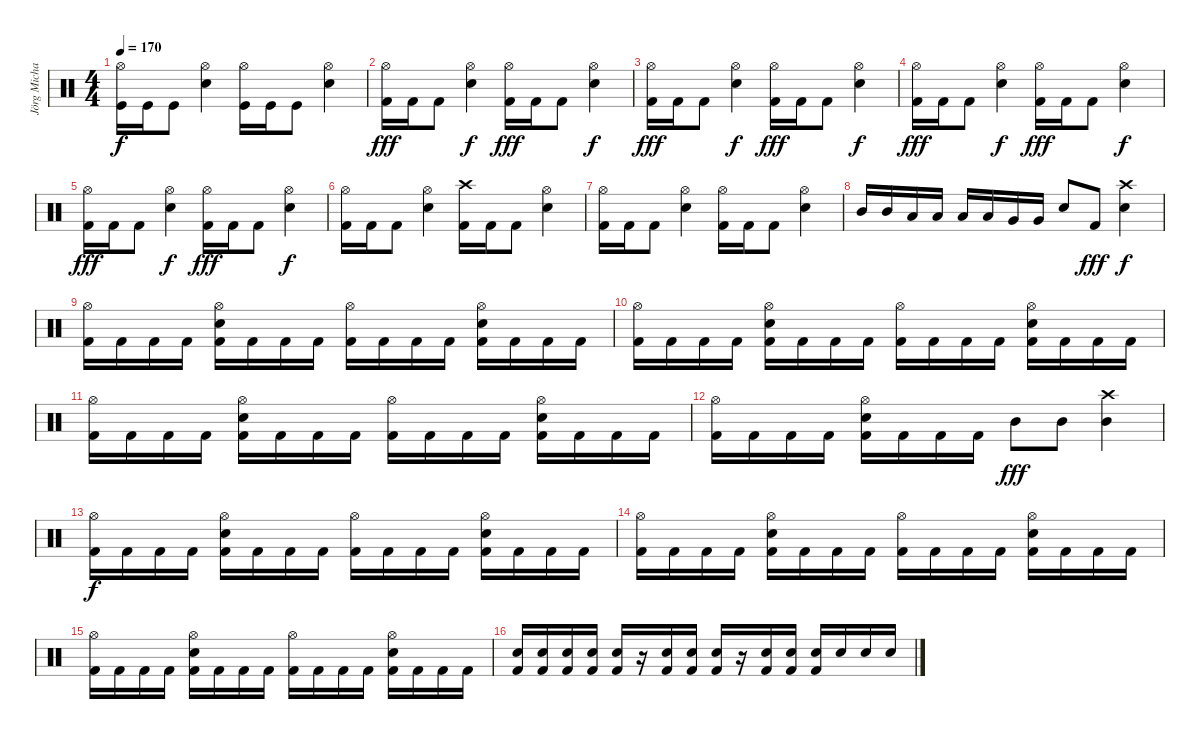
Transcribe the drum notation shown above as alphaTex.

\track ("Jörg Michael" "Jörg Micha") {instrument percussion}
\staff {score}
\articulation defaults
\ts (4 4)
\tempo 170
\clef neutral
\ks c
("Hi-Hat (open)" "Kick (hit)").16{dy f} "Kick (hit)".16 "Kick (hit)".8 ("Hi-Hat (open)" "Electric Snare (hit)").4 ("Hi-Hat (open)" "Kick (hit)").16 "Kick (hit)".16 "Kick (hit)".8 ("Hi-Hat (open)" "Electric Snare (hit)").4 |
("Hi-Hat (open)" "Kick (hit) 2").16{dy fff} "Kick (hit) 2".16 "Kick (hit) 2".8 ("Hi-Hat (open)" "Snare (hit) 2").4{dy f} ("Hi-Hat (open)" "Kick (hit) 2").16{dy fff} "Kick (hit) 2".16 "Kick (hit) 2".8 ("Hi-Hat (open)" "Snare (hit) 2").4{dy f} |
("Hi-Hat (open)" "Kick (hit) 2").16{dy fff} "Kick (hit) 2".16 "Kick (hit) 2".8 ("Hi-Hat (open)" "Snare (hit) 2").4{dy f} ("Hi-Hat (open)" "Kick (hit) 2").16{dy fff} "Kick (hit) 2".16 "Kick (hit) 2".8 ("Hi-Hat (open)" "Snare (hit) 2").4{dy f} |
("Hi-Hat (open)" "Kick (hit) 2").16{dy fff} "Kick (hit) 2".16 "Kick (hit) 2".8 ("Hi-Hat (open)" "Snare (hit) 2").4{dy f} ("Hi-Hat (open)" "Kick (hit) 2").16{dy fff} "Kick (hit) 2".16 "Kick (hit) 2".8 ("Hi-Hat (open)" "Snare (hit) 2").4{dy f} |
("Hi-Hat (open)" "Kick (hit) 2").16{dy fff} "Kick (hit) 2".16 "Kick (hit) 2".8 ("Hi-Hat (open)" "Snare (hit) 2").4{dy f} ("Hi-Hat (open)" "Kick (hit) 2").16{dy fff} "Kick (hit) 2".16 "Kick (hit) 2".8 ("Hi-Hat (open)" "Snare (hit) 2").4{dy f} |
("Hi-Hat (open)" "Kick (hit) 2").16 "Kick (hit) 2".16 "Kick (hit) 2".8 ("Hi-Hat (open)" "Snare (hit) 2").4 ("Crash high (hit)" "Kick (hit) 2").16 "Kick (hit) 2".16 "Kick (hit) 2".8 ("Hi-Hat (open)" "Snare (hit) 2").4 |
("Hi-Hat (open)" "Kick (hit) 2").16 "Kick (hit) 2".16 "Kick (hit) 2".8 ("Hi-Hat (open)" "Snare (hit) 2").4 ("Hi-Hat (open)" "Kick (hit) 2").16 "Kick (hit) 2".16 "Kick (hit) 2".8 ("Hi-Hat (open)" "Snare (hit) 2").4 |
"Mid Tom (hit)".16 "Mid Tom (hit)".16 "Low Tom (hit)".16 "Low Tom (hit)".16 "Low Floor Tom (hit)".16 "Low Floor Tom (hit)".16 "Very Low Tom (hit)".16 "Very Low Tom (hit)".16 "Snare (hit) 2".8 "Kick (hit) 2".8{dy fff} ("Crash high (hit)" "Snare (hit) 2").4{dy f} |
("Hi-Hat (open)" "Kick (hit) 2").16 "Kick (hit) 2".16 "Kick (hit) 2".16 "Kick (hit) 2".16 ("Hi-Hat (open)" "Snare (hit) 2" "Kick (hit) 2").16 "Kick (hit) 2".16 "Kick (hit) 2".16 "Kick (hit) 2".16 ("Hi-Hat (open)" "Kick (hit) 2").16 "Kick (hit) 2".16 "Kick (hit) 2".16 "Kick (hit) 2".16 ("Hi-Hat (open)" "Snare (hit) 2" "Kick (hit) 2").16 "Kick (hit) 2".16 "Kick (hit) 2".16 "Kick (hit) 2".16 |
("Hi-Hat (open)" "Kick (hit) 2").16 "Kick (hit) 2".16 "Kick (hit) 2".16 "Kick (hit) 2".16 ("Hi-Hat (open)" "Snare (hit) 2" "Kick (hit) 2").16 "Kick (hit) 2".16 "Kick (hit) 2".16 "Kick (hit) 2".16 ("Hi-Hat (open)" "Kick (hit) 2").16 "Kick (hit) 2".16 "Kick (hit) 2".16 "Kick (hit) 2".16 ("Hi-Hat (open)" "Snare (hit) 2" "Kick (hit) 2").16 "Kick (hit) 2".16 "Kick (hit) 2".16 "Kick (hit) 2".16 |
("Hi-Hat (open)" "Kick (hit) 2").16 "Kick (hit) 2".16 "Kick (hit) 2".16 "Kick (hit) 2".16 ("Hi-Hat (open)" "Snare (hit) 2" "Kick (hit) 2").16 "Kick (hit) 2".16 "Kick (hit) 2".16 "Kick (hit) 2".16 ("Hi-Hat (open)" "Kick (hit) 2").16 "Kick (hit) 2".16 "Kick (hit) 2".16 "Kick (hit) 2".16 ("Hi-Hat (open)" "Snare (hit) 2" "Kick (hit) 2").16 "Kick (hit) 2".16 "Kick (hit) 2".16 "Kick (hit) 2".16 |
("Hi-Hat (open)" "Kick (hit) 2").16 "Kick (hit) 2".16 "Kick (hit) 2".16 "Kick (hit) 2".16 ("Hi-Hat (open)" "Snare (hit) 2" "Kick (hit) 2").16 "Kick (hit) 2".16 "Kick (hit) 2".16 "Kick (hit) 2".16 "Mid Tom (hit)".8{dy fff} "Mid Tom (hit)".8 ("Crash high (hit)" "Mid Tom (hit)").4 |
("Hi-Hat (open)" "Kick (hit) 2").16{dy f} "Kick (hit) 2".16 "Kick (hit) 2".16 "Kick (hit) 2".16 ("Hi-Hat (open)" "Snare (hit) 2" "Kick (hit) 2").16 "Kick (hit) 2".16 "Kick (hit) 2".16 "Kick (hit) 2".16 ("Hi-Hat (open)" "Kick (hit) 2").16 "Kick (hit) 2".16 "Kick (hit) 2".16 "Kick (hit) 2".16 ("Hi-Hat (open)" "Snare (hit) 2" "Kick (hit) 2").16 "Kick (hit) 2".16 "Kick (hit) 2".16 "Kick (hit) 2".16 |
("Hi-Hat (open)" "Kick (hit) 2").16 "Kick (hit) 2".16 "Kick (hit) 2".16 "Kick (hit) 2".16 ("Hi-Hat (open)" "Snare (hit) 2" "Kick (hit) 2").16 "Kick (hit) 2".16 "Kick (hit) 2".16 "Kick (hit) 2".16 ("Hi-Hat (open)" "Kick (hit) 2").16 "Kick (hit) 2".16 "Kick (hit) 2".16 "Kick (hit) 2".16 ("Hi-Hat (open)" "Snare (hit) 2" "Kick (hit) 2").16 "Kick (hit) 2".16 "Kick (hit) 2".16 "Kick (hit) 2".16 |
("Hi-Hat (open)" "Kick (hit) 2").16 "Kick (hit) 2".16 "Kick (hit) 2".16 "Kick (hit) 2".16 ("Hi-Hat (open)" "Snare (hit) 2" "Kick (hit) 2").16 "Kick (hit) 2".16 "Kick (hit) 2".16 "Kick (hit) 2".16 ("Hi-Hat (open)" "Kick (hit) 2").16 "Kick (hit) 2".16 "Kick (hit) 2".16 "Kick (hit) 2".16 ("Hi-Hat (open)" "Snare (hit) 2" "Kick (hit) 2").16 "Kick (hit) 2".16 "Kick (hit) 2".16 "Kick (hit) 2".16 |
("Snare (hit) 2" "Kick (hit) 2").16 ("Snare (hit) 2" "Kick (hit) 2").16 ("Snare (hit) 2" "Kick (hit) 2").16 ("Snare (hit) 2" "Kick (hit) 2").16 ("Snare (hit) 2" "Kick (hit) 2").16 r.16 ("Snare (hit) 2" "Kick (hit) 2").16 ("Snare (hit) 2" "Kick (hit) 2").16 ("Snare (hit) 2" "Kick (hit) 2").16 r.16 ("Snare (hit) 2" "Kick (hit) 2").16 ("Snare (hit) 2" "Kick (hit) 2").16 ("Snare (hit) 2" "Kick (hit) 2").16 "Snare (hit) 2".16 "Snare (hit) 2".16 "Snare (hit) 2".16
